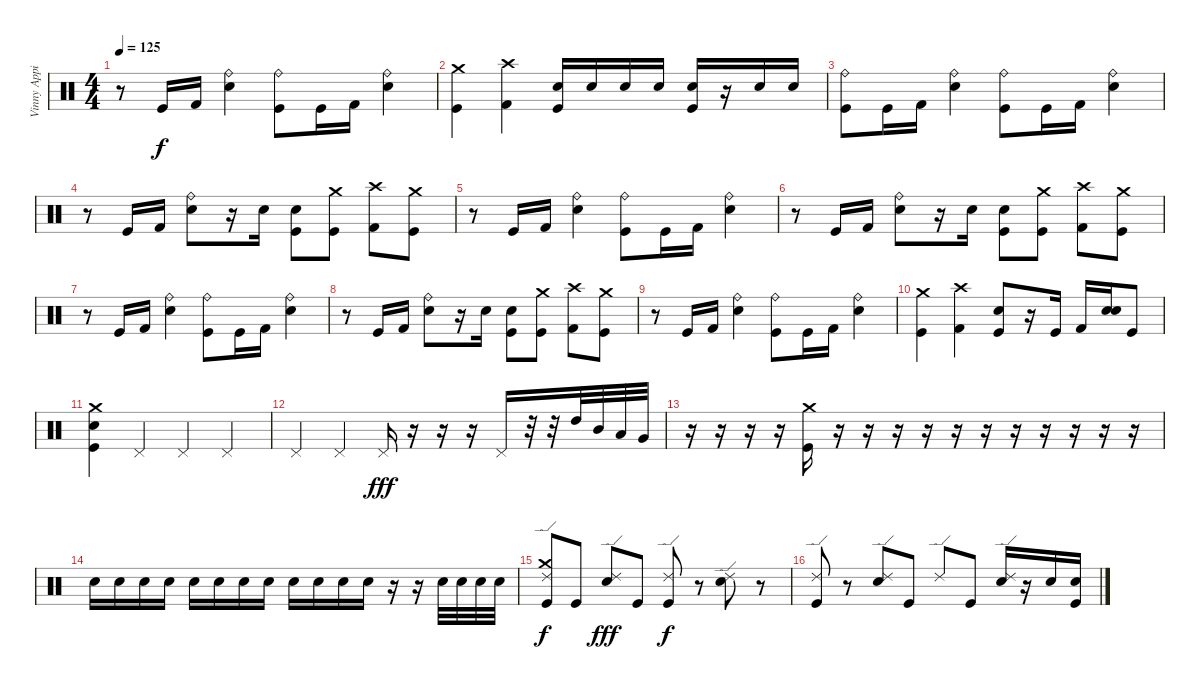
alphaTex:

\track ("Vinny Appice - Drums" "Vinny Appi") {instrument percussion}
\staff {score}
\articulation defaults
\ts (4 4)
\tempo 125
\clef neutral
\ks c
r.8{dy f} "Kick (hit)".16 "Kick (hit) 2".16 ("Snare (hit) 2" "Ride (bell)").4 ("Kick (hit)" "Ride (bell)").8 "Kick (hit)".16 "Kick (hit) 2".16 ("Snare (hit) 2" "Ride (bell)").4 |
("Kick (hit)" "Crash medium (hit)").4 ("Kick (hit) 2" "Crash high (hit)").4 ("Snare (hit) 2" "Kick (hit)").16 "Snare (hit) 2".16 "Snare (hit) 2".16 "Snare (hit) 2".16 ("Snare (hit) 2" "Kick (hit)").16 r.16 "Snare (hit) 2".16 "Snare (hit) 2".16 |
("Kick (hit)" "Ride (bell)").8 "Kick (hit)".16 "Kick (hit) 2".16 ("Snare (hit) 2" "Ride (bell)").4 ("Kick (hit)" "Ride (bell)").8 "Kick (hit)".16 "Kick (hit) 2".16 ("Snare (hit) 2" "Ride (bell)").4 |
r.8 "Kick (hit)".16 "Kick (hit) 2".16 ("Snare (hit) 2" "Ride (bell)").8 r.16 "Snare (hit) 2".16 ("Snare (hit) 2" "Kick (hit)").8 ("Kick (hit)" "Crash medium (hit)").8 ("Kick (hit) 2" "Crash high (hit)").8 ("Kick (hit)" "Crash medium (hit)").8 |
r.8 "Kick (hit)".16 "Kick (hit) 2".16 ("Snare (hit) 2" "Ride (bell)").4 ("Kick (hit)" "Ride (bell)").8 "Kick (hit)".16 "Kick (hit) 2".16 ("Snare (hit) 2" "Ride (bell)").4 |
r.8 "Kick (hit)".16 "Kick (hit) 2".16 ("Snare (hit) 2" "Ride (bell)").8 r.16 "Snare (hit) 2".16 ("Snare (hit) 2" "Kick (hit)").8 ("Kick (hit)" "Crash medium (hit)").8 ("Kick (hit) 2" "Crash high (hit)").8 ("Kick (hit)" "Crash medium (hit)").8 |
r.8 "Kick (hit)".16 "Kick (hit) 2".16 ("Snare (hit) 2" "Ride (bell)").4 ("Kick (hit)" "Ride (bell)").8 "Kick (hit)".16 "Kick (hit) 2".16 ("Snare (hit) 2" "Ride (bell)").4 |
r.8 "Kick (hit)".16 "Kick (hit) 2".16 ("Snare (hit) 2" "Ride (bell)").8 r.16 "Snare (hit) 2".16 ("Snare (hit) 2" "Kick (hit)").8 ("Kick (hit)" "Crash medium (hit)").8 ("Kick (hit) 2" "Crash high (hit)").8 ("Kick (hit)" "Crash medium (hit)").8 |
r.8 "Kick (hit)".16 "Kick (hit) 2".16 ("Snare (hit) 2" "Ride (bell)").4 ("Kick (hit)" "Ride (bell)").8 "Kick (hit)".16 "Kick (hit) 2".16 ("Snare (hit) 2" "Ride (bell)").4 |
("Kick (hit)" "Crash medium (hit)").4 ("Kick (hit) 2" "Crash high (hit)").4 ("Snare (hit) 2" "Kick (hit)").8 r.16 "Kick (hit)".16 "Kick (hit) 2".16 ("Snare (hit) 2" "Snare (hit) 2").16 "Kick (hit)".8 |
("Kick (hit)" "Crash medium (hit)" "Snare (hit) 2").4 "Pedal Hi-Hat (hit)".4 "Pedal Hi-Hat (hit)".4 "Pedal Hi-Hat (hit)".4 |
"Pedal Hi-Hat (hit)".4 "Pedal Hi-Hat (hit)".4 "Pedal Hi-Hat (hit)".16{dy fff} r.16 r.16 r.16 "Pedal Hi-Hat (hit)".16 r.32 r.32 "High Tom (hit)".32 "Mid Tom (hit)".32 "Low Tom (hit)".32 "Very Low Tom (hit)".32 |
r.16 r.16 r.16 r.16 ("Kick (hit)" "Crash medium (hit)").16 r.16 r.16 r.16 r.16 r.16 r.16 r.16 r.16 r.16 r.16 r.16 |
"Snare (hit) 2".16 "Snare (hit) 2".16 "Snare (hit) 2".16 "Snare (hit) 2".16 "Snare (hit) 2".16 "Snare (hit) 2".16 "Snare (hit) 2".16 "Snare (hit) 2".16 "Snare (hit) 2".16 "Snare (hit) 2".16 "Snare (hit) 2".16 "Snare (hit) 2".16 r.16 r.16 "Snare (hit) 2".32 "Snare (hit) 2".32 "Snare (hit) 2".32 "Snare (hit) 2".32 |
("Kick (hit)" "Ride (edge) 2" "Crash medium (hit)").8{dy f} "Kick (hit)".8 ("Ride (edge) 2" "Snare (hit) 2").8{dy fff} "Kick (hit)".8 ("Ride (edge) 2" "Kick (hit)").8{dy f} r.8 ("Ride (edge) 2" "Snare (hit) 2").8 r.8 |
("Ride (edge) 2" "Kick (hit)").8 r.8 ("Ride (edge) 2" "Snare (hit) 2").8 "Kick (hit)".8 "Ride (edge) 2".8 "Kick (hit)".8 ("Ride (edge) 2" "Snare (hit) 2").16 r.16 "Snare (hit) 2".16 ("Kick (hit)" "Snare (hit) 2").16
